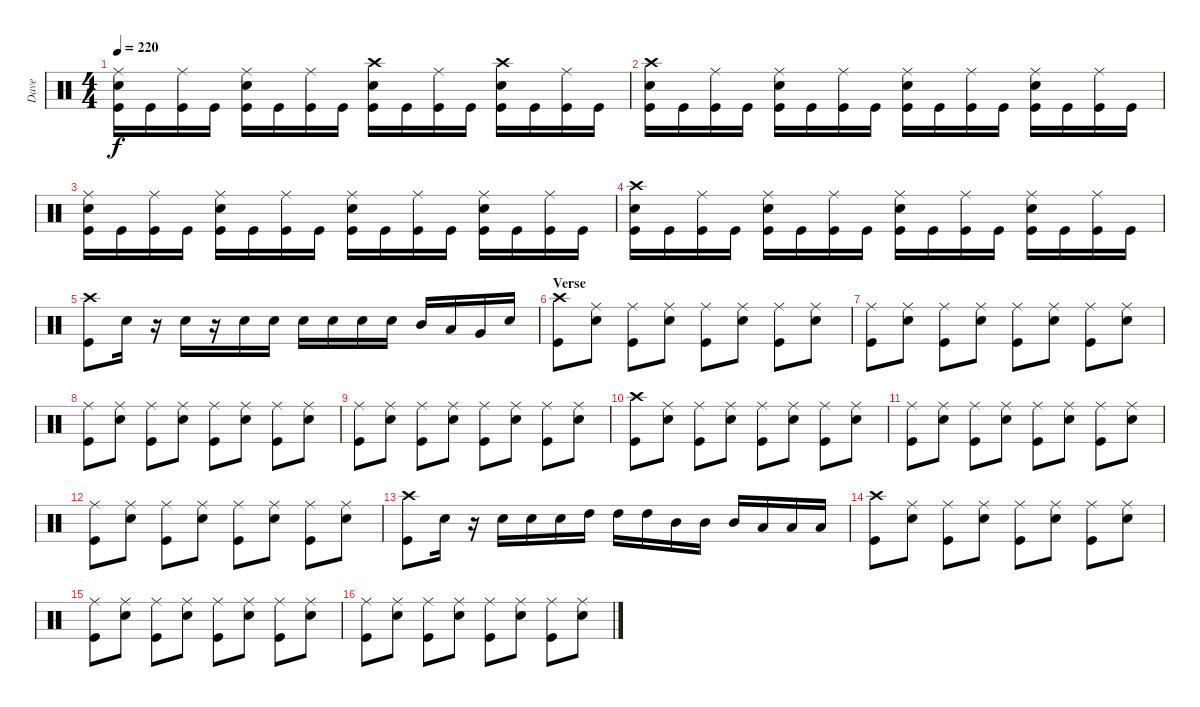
\track ("Dave" "Dave") {instrument percussion}
\staff {score}
\articulation defaults
\ts (4 4)
\tempo 220
\clef neutral
\ks c
("Ride (middle)" "Snare (hit) 2" "Kick (hit)").16{dy f} "Kick (hit)".16 ("Ride (middle)" "Kick (hit)").16 "Kick (hit)".16 ("Ride (middle)" "Snare (hit) 2" "Kick (hit)").16 "Kick (hit)".16 ("Ride (middle)" "Kick (hit)").16 "Kick (hit)".16 ("Crash high (hit)" "Snare (hit) 2" "Kick (hit)").16 "Kick (hit)".16 ("Ride (middle)" "Kick (hit)").16 "Kick (hit)".16 ("Crash high (hit)" "Snare (hit) 2" "Kick (hit)").16 "Kick (hit)".16 ("Ride (middle)" "Kick (hit)").16 "Kick (hit)".16 |
("Crash high (hit)" "Snare (hit) 2" "Kick (hit)").16 "Kick (hit)".16 ("Ride (middle)" "Kick (hit)").16 "Kick (hit)".16 ("Ride (middle)" "Snare (hit) 2" "Kick (hit)").16 "Kick (hit)".16 ("Ride (middle)" "Kick (hit)").16 "Kick (hit)".16 ("Ride (middle)" "Snare (hit) 2" "Kick (hit)").16 "Kick (hit)".16 ("Ride (middle)" "Kick (hit)").16 "Kick (hit)".16 ("Ride (middle)" "Snare (hit) 2" "Kick (hit)").16 "Kick (hit)".16 ("Ride (middle)" "Kick (hit)").16 "Kick (hit)".16 |
("Ride (middle)" "Snare (hit) 2" "Kick (hit)").16 "Kick (hit)".16 ("Ride (middle)" "Kick (hit)").16 "Kick (hit)".16 ("Ride (middle)" "Snare (hit) 2" "Kick (hit)").16 "Kick (hit)".16 ("Ride (middle)" "Kick (hit)").16 "Kick (hit)".16 ("Ride (middle)" "Snare (hit) 2" "Kick (hit)").16 "Kick (hit)".16 ("Ride (middle)" "Kick (hit)").16 "Kick (hit)".16 ("Ride (middle)" "Snare (hit) 2" "Kick (hit)").16 "Kick (hit)".16 ("Ride (middle)" "Kick (hit)").16 "Kick (hit)".16 |
("Crash high (hit)" "Snare (hit) 2" "Kick (hit)").16 "Kick (hit)".16 ("Ride (middle)" "Kick (hit)").16 "Kick (hit)".16 ("Ride (middle)" "Snare (hit) 2" "Kick (hit)").16 "Kick (hit)".16 ("Ride (middle)" "Kick (hit)").16 "Kick (hit)".16 ("Ride (middle)" "Snare (hit) 2" "Kick (hit)").16 "Kick (hit)".16 ("Ride (middle)" "Kick (hit)").16 "Kick (hit)".16 ("Ride (middle)" "Snare (hit) 2" "Kick (hit)").16 "Kick (hit)".16 ("Ride (middle)" "Kick (hit)").16 "Kick (hit)".16 |
("Crash high (hit)" "Kick (hit)").8 "Snare (hit) 2".16 r.16 "Snare (hit) 2".16 r.16 "Snare (hit) 2".16 "Snare (hit) 2".16 "Snare (hit) 2".16 "Snare (hit) 2".16 "Snare (hit) 2".16 "Snare (hit) 2".16 "Mid Tom (hit)".16 "Low Tom (hit)".16 "Very Low Tom (hit)".16 "Snare (hit) 2".16 |
\section ("" "Verse")
("Crash high (hit)" "Kick (hit)").8 ("Ride (middle)" "Snare (hit) 2").8 ("Ride (middle)" "Kick (hit)").8 ("Ride (middle)" "Snare (hit) 2").8 ("Ride (middle)" "Kick (hit)").8 ("Ride (middle)" "Snare (hit) 2").8 ("Ride (middle)" "Kick (hit)").8 ("Ride (middle)" "Snare (hit) 2").8 |
("Ride (middle)" "Kick (hit)").8 ("Ride (middle)" "Snare (hit) 2").8 ("Ride (middle)" "Kick (hit)").8 ("Ride (middle)" "Snare (hit) 2").8 ("Ride (middle)" "Kick (hit)").8 ("Ride (middle)" "Snare (hit) 2").8 ("Ride (middle)" "Kick (hit)").8 ("Ride (middle)" "Snare (hit) 2").8 |
("Ride (middle)" "Kick (hit)").8 ("Ride (middle)" "Snare (hit) 2").8 ("Ride (middle)" "Kick (hit)").8 ("Ride (middle)" "Snare (hit) 2").8 ("Ride (middle)" "Kick (hit)").8 ("Ride (middle)" "Snare (hit) 2").8 ("Ride (middle)" "Kick (hit)").8 ("Ride (middle)" "Snare (hit) 2").8 |
("Ride (middle)" "Kick (hit)").8 ("Ride (middle)" "Snare (hit) 2").8 ("Ride (middle)" "Kick (hit)").8 ("Ride (middle)" "Snare (hit) 2").8 ("Ride (middle)" "Kick (hit)").8 ("Ride (middle)" "Snare (hit) 2").8 ("Ride (middle)" "Kick (hit)").8 ("Ride (middle)" "Snare (hit) 2").8 |
("Crash high (hit)" "Kick (hit)").8 ("Ride (middle)" "Snare (hit) 2").8 ("Ride (middle)" "Kick (hit)").8 ("Ride (middle)" "Snare (hit) 2").8 ("Ride (middle)" "Kick (hit)").8 ("Ride (middle)" "Snare (hit) 2").8 ("Ride (middle)" "Kick (hit)").8 ("Ride (middle)" "Snare (hit) 2").8 |
("Ride (middle)" "Kick (hit)").8 ("Ride (middle)" "Snare (hit) 2").8 ("Ride (middle)" "Kick (hit)").8 ("Ride (middle)" "Snare (hit) 2").8 ("Ride (middle)" "Kick (hit)").8 ("Ride (middle)" "Snare (hit) 2").8 ("Ride (middle)" "Kick (hit)").8 ("Ride (middle)" "Snare (hit) 2").8 |
("Ride (middle)" "Kick (hit)").8 ("Ride (middle)" "Snare (hit) 2").8 ("Ride (middle)" "Kick (hit)").8 ("Ride (middle)" "Snare (hit) 2").8 ("Ride (middle)" "Kick (hit)").8 ("Ride (middle)" "Snare (hit) 2").8 ("Ride (middle)" "Kick (hit)").8 ("Ride (middle)" "Snare (hit) 2").8 |
("Crash high (hit)" "Kick (hit)").8 "Snare (hit) 2".16 r.16 "Snare (hit) 2".16 "Snare (hit) 2".16 "Snare (hit) 2".16 "High Tom (hit)".16 "High Tom (hit)".16 "High Tom (hit)".16 "Mid Tom (hit)".16 "Mid Tom (hit)".16 "Mid Tom (hit)".16 "Low Tom (hit)".16 "Low Tom (hit)".16 "Low Tom (hit)".16 |
("Crash high (hit)" "Kick (hit)").8 ("Ride (middle)" "Snare (hit) 2").8 ("Ride (middle)" "Kick (hit)").8 ("Ride (middle)" "Snare (hit) 2").8 ("Ride (middle)" "Kick (hit)").8 ("Ride (middle)" "Snare (hit) 2").8 ("Ride (middle)" "Kick (hit)").8 ("Ride (middle)" "Snare (hit) 2").8 |
("Ride (middle)" "Kick (hit)").8 ("Ride (middle)" "Snare (hit) 2").8 ("Ride (middle)" "Kick (hit)").8 ("Ride (middle)" "Snare (hit) 2").8 ("Ride (middle)" "Kick (hit)").8 ("Ride (middle)" "Snare (hit) 2").8 ("Ride (middle)" "Kick (hit)").8 ("Ride (middle)" "Snare (hit) 2").8 |
("Ride (middle)" "Kick (hit)").8 ("Ride (middle)" "Snare (hit) 2").8 ("Ride (middle)" "Kick (hit)").8 ("Ride (middle)" "Snare (hit) 2").8 ("Ride (middle)" "Kick (hit)").8 ("Ride (middle)" "Snare (hit) 2").8 ("Ride (middle)" "Kick (hit)").8 ("Ride (middle)" "Snare (hit) 2").8
